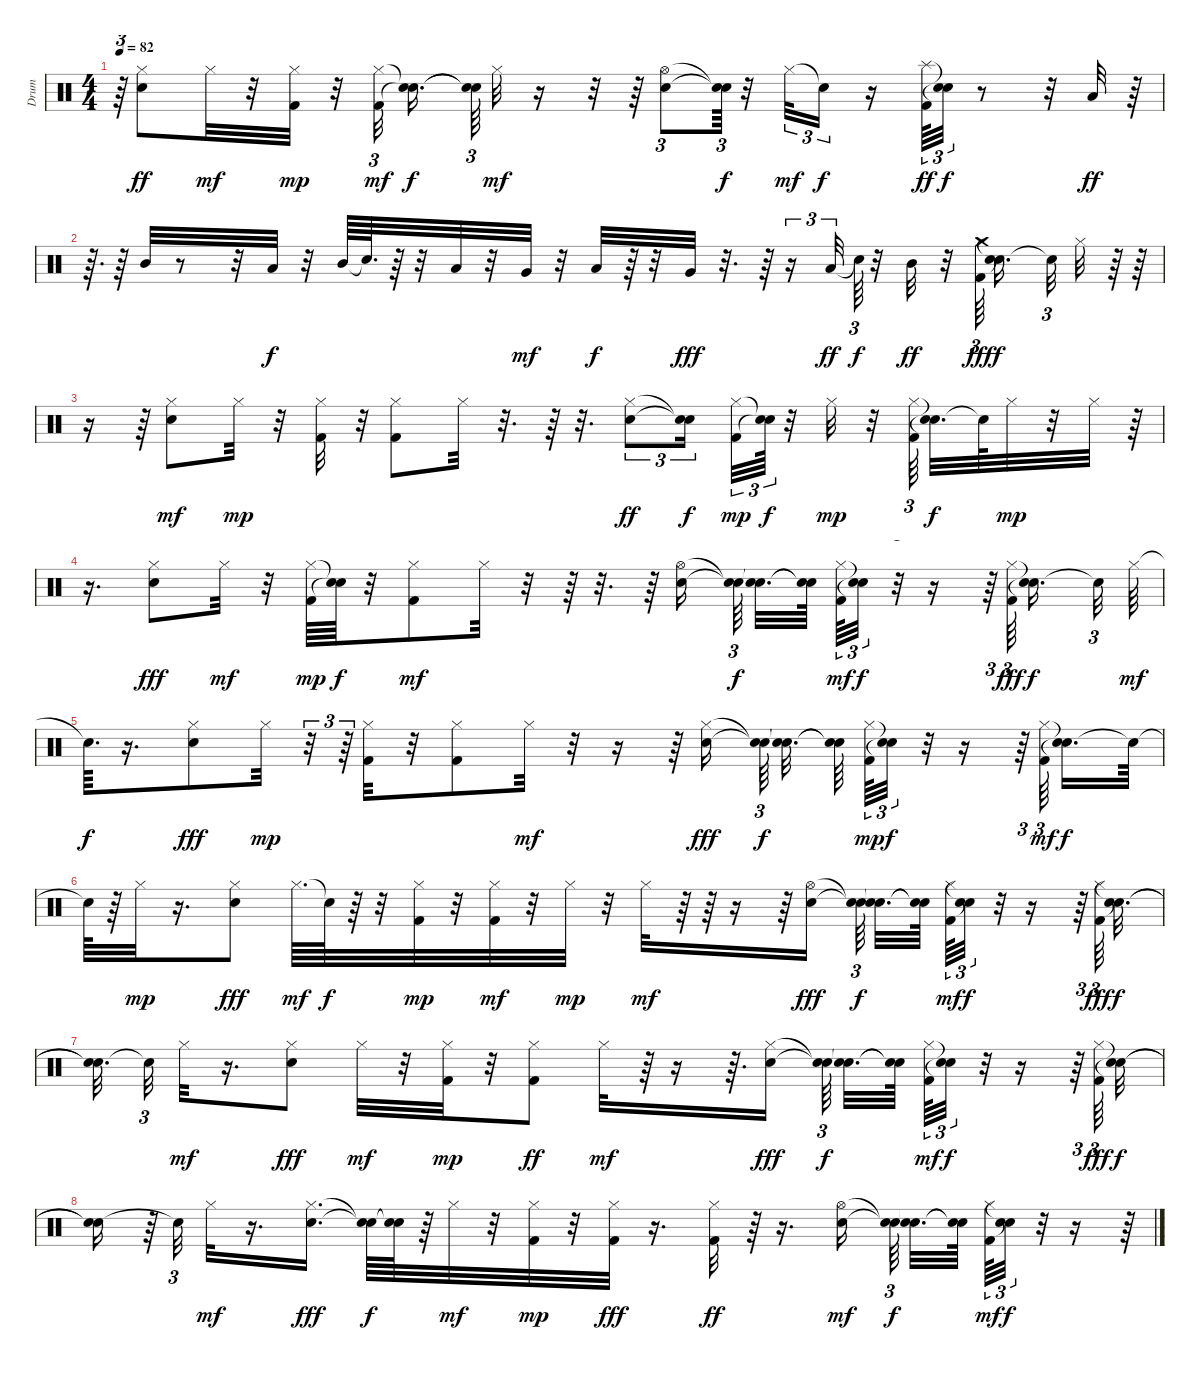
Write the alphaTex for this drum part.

\track ("Drum" "Drum") {instrument percussion}
\staff {score}
\articulation defaults
\ts (4 4)
\tempo 82
\clef neutral
\ks c
r.64{tu (3 2) dy mp} ("Electric Snare (hit)" "Hi-Hat (closed)").8{dy ff} "Hi-Hat (closed)".32{dy mf} r.32 ("Kick (hit) 2" "Hi-Hat (closed)").32{dy mp} r.32 ("Kick (hit) 2" "Hi-Hat (closed)").32{tu (3 2) dy mf beam splitsecondary} ("Snare (hit)"{t} "Snare (hit)"{t}).16{d dy f beam splitsecondary} ("Snare (hit)"{t} "Snare (hit)"{t}).64{tu (3 2)} "Hi-Hat (closed)".32{dy mf} r.16 r.32 r.64 ("Electric Snare (hit)" "Hi-Hat (open)").8{tu (3 2)} ("Snare (hit)"{t} "Snare (hit)"{t}).64{tu (3 2) dy f} r.32 "Hi-Hat (closed)".32{tu (3 2) dy mf} "Snare (hit)"{t}.16{tu (3 2) dy f} r.16 ("Kick (hit) 2" "Splash (hit)").64{tu (3 2) dy ff} ("Snare (hit)"{t} "Snare (hit)"{t}).32{tu (3 2) dy f} r.8 r.32 "Low Tom (hit)".32{dy ff} r.64 |
r.64{d} r.64 "Mid Tom (hit)".32 r.8 r.32 "Low Tom (hit)".32{dy f} r.32 "Mid Tom (hit)".64 "Snare (hit)"{t}.64{d} r.64 r.32 "Low Tom (hit)".32 r.32 "Very Low Tom (hit)".32{dy mf} r.32 "Low Floor Tom (hit)".32{dy f} r.64 r.32 "Very Low Tom (hit)".32{dy fff} r.32{d} r.64 r.16{tu (3 2)} "Low Tom (hit)".32{tu (3 2) dy ff} "Snare (hit)"{t}.64{tu (3 2) dy f} r.32 "Mid Tom (hit)".32{dy ff} r.32 ("Kick (hit) 2" "Crash medium (hit)").64{tu (3 2) dy fff beam splitsecondary} ("Snare (hit)"{t} "Snare (hit)"{t}).16{d dy f beam splitsecondary} "Snare (hit)"{t}.32{tu (3 2)} "Hi-Hat (closed)".32 r.64 r.64 |
r.16 r.64 ("Electric Snare (hit)" "Hi-Hat (closed)").8{dy mf} "Hi-Hat (closed)".32{dy mp} r.32 ("Kick (hit) 2" "Hi-Hat (closed)").32 r.32{tu (3 2)} ("Kick (hit) 2" "Hi-Hat (closed)").8 "Hi-Hat (closed)".32 r.32{d} r.64 r.32{d} ("Electric Snare (hit)" "Hi-Hat (closed)").8{tu (3 2) dy ff} ("Snare (hit)"{t} "Snare (hit)"{t}).16{tu (3 2) dy f beam splitsecondary} ("Kick (hit) 2" "Hi-Hat (closed)").32{tu (3 2) dy mp} ("Snare (hit)"{t} "Snare (hit)"{t}).64{tu (3 2) dy f} r.32 "Hi-Hat (closed)".32{dy mp} r.32 ("Kick (hit) 2" "Hi-Hat (closed)").64{tu (3 2) beam splitsecondary} ("Snare (hit)"{t} "Snare (hit)"{t}).32{d dy f} "Snare (hit)"{t}.64 "Hi-Hat (closed)".32{dy mp} r.32 "Hi-Hat (closed)".32 r.64 |
r.16{d} ("Electric Snare (hit)" "Hi-Hat (closed)").8{dy fff} "Hi-Hat (closed)".32{dy mf} r.32 ("Kick (hit) 2" "Hi-Hat (closed)").64{dy mp} ("Snare (hit)"{t} "Snare (hit)"{t}).64{dy f} r.32 ("Kick (hit) 2" "Hi-Hat (closed)").8{dy mf} "Hi-Hat (closed)".32 r.32 r.64 r.32{d} r.64 ("Electric Snare (hit)" "Hi-Hat (open)").16{beam splitsecondary} ("Snare (hit)"{t} "Snare (hit)"{t}).64{tu (3 2) dy f beam splitsecondary} ("Snare (hit)"{t} "Snare (hit)"{t}).32{d} ("Snare (hit)"{t} "Snare (hit)"{t}).64 ("Kick (hit) 2" "Hi-Hat (closed)").64{tu (3 2) dy mf} ("Snare (hit)"{t} "Snare (hit)"{t}).32{tu (3 2) dy f} r.32{tu (3 2)} r.16 r.64{tu (3 2)} ("Kick (hit) 2" "Hi-Hat (closed)").64{tu (3 2) dy fff beam splitsecondary} ("Snare (hit)"{t} "Snare (hit)"{t}).16{d dy f beam splitsecondary} "Snare (hit)"{t}.32{tu (3 2)} "Hi-Hat (closed)".64{dy mf} |
"Snare (hit)"{t}.64{d dy f} r.16{d} ("Electric Snare (hit)" "Hi-Hat (closed)").8{dy fff} "Hi-Hat (closed)".32{dy mp} r.32{tu (3 2)} r.64{tu (3 2)} ("Kick (hit) 2" "Hi-Hat (closed)").32 r.32 ("Kick (hit) 2" "Hi-Hat (closed)").8 "Hi-Hat (closed)".32{dy mf} r.32 r.16 r.64 ("Electric Snare (hit)" "Hi-Hat (closed)").16{dy fff beam splitsecondary} ("Snare (hit)"{t} "Snare (hit)"{t}).64{tu (3 2) dy f} ("Snare (hit)"{t} "Snare (hit)"{t}).32{d} ("Snare (hit)"{t} "Snare (hit)"{t}).64{beam splitsecondary} ("Kick (hit) 2" "Hi-Hat (closed)").64{tu (3 2) dy mp} ("Snare (hit)"{t} "Snare (hit)"{t}).32{tu (3 2) dy f} r.32{tu (3 2)} r.16 r.64{tu (3 2)} ("Kick (hit) 2" "Hi-Hat (closed)").64{tu (3 2) dy mf beam splitsecondary} ("Snare (hit)"{t} "Snare (hit)"{t}).16{d dy f} "Snare (hit)"{t}.64 |
"Snare (hit)"{t}.64 r.64 "Hi-Hat (closed)".32{dy mp} r.16{d} ("Electric Snare (hit)" "Hi-Hat (closed)").8{dy fff} "Hi-Hat (closed)".64{d dy mf} "Snare (hit)"{t}.64{dy f} r.64 r.32 ("Kick (hit) 2" "Hi-Hat (closed)").32{dy mp} r.32 ("Kick (hit) 2" "Hi-Hat (closed)").32{dy mf} r.32 "Hi-Hat (closed)".32{dy mp} r.32 "Hi-Hat (closed)".32{dy mf} r.64 r.64 r.16 r.64 ("Electric Snare (hit)" "Hi-Hat (open)").16{dy fff} ("Snare (hit)"{t} "Snare (hit)"{t}).64{tu (3 2) dy f beam splitsecondary} ("Snare (hit)"{t} "Snare (hit)"{t}).32{d} ("Snare (hit)"{t} "Snare (hit)"{t}).64{beam splitsecondary} ("Kick (hit) 2" "Hi-Hat (closed)").64{tu (3 2) dy mf} ("Snare (hit)"{t} "Snare (hit)"{t}).32{tu (3 2) dy f} r.32{tu (3 2)} r.16 r.64{tu (3 2)} ("Kick (hit) 2" "Hi-Hat (closed)").64{tu (3 2) dy fff} ("Snare (hit)"{t} "Snare (hit)"{t}).32{d dy f} |
("Snare (hit)"{t} "Snare (hit)"{t}).32{d beam splitsecondary} "Snare (hit)"{t}.32{tu (3 2)} "Hi-Hat (closed)".32{dy mf} r.16{d} ("Electric Snare (hit)" "Hi-Hat (closed)").8{dy fff} "Hi-Hat (closed)".32{dy mf} r.32 ("Kick (hit) 2" "Hi-Hat (closed)").32{dy mp} r.32 ("Kick (hit) 2" "Hi-Hat (closed)").8{dy ff} "Hi-Hat (closed)".32{dy mf} r.64 r.16 r.64{d} ("Electric Snare (hit)" "Hi-Hat (closed)").16{dy fff} ("Snare (hit)"{t} "Snare (hit)"{t}).64{tu (3 2) dy f beam splitsecondary} ("Snare (hit)"{t} "Snare (hit)"{t}).32{d} ("Snare (hit)"{t} "Snare (hit)"{t}).64{beam splitsecondary} ("Kick (hit) 2" "Hi-Hat (closed)").64{tu (3 2) dy mf} ("Snare (hit)"{t} "Snare (hit)"{t}).32{tu (3 2) dy f} r.32{tu (3 2)} r.16 r.64{tu (3 2)} ("Kick (hit) 2" "Hi-Hat (closed)").64{tu (3 2) dy fff} ("Snare (hit)"{t} "Snare (hit)"{t}).32{dy f} |
("Snare (hit)"{t} "Snare (hit)"{t}).16 r.64 "Snare (hit)"{t}.32{tu (3 2)} "Hi-Hat (closed)".32{dy mf} r.16{d} ("Electric Snare (hit)" "Hi-Hat (closed)").16{d dy fff} ("Snare (hit)"{t} "Snare (hit)"{t}).64{dy f} ("Snare (hit)"{t} "Snare (hit)"{t}).64 r.64 "Hi-Hat (closed)".32{dy mf} r.32 ("Kick (hit) 2" "Hi-Hat (closed)").32{dy mp} r.32 ("Kick (hit) 2" "Hi-Hat (closed)").32{dy fff} r.16{d} ("Kick (hit) 2" "Hi-Hat (closed)").32{dy ff} r.64 r.16{d} ("Electric Snare (hit)" "Hi-Hat (open)").16{dy mf beam splitsecondary} ("Snare (hit)"{t} "Snare (hit)"{t}).64{tu (3 2) dy f beam splitsecondary} ("Snare (hit)"{t} "Snare (hit)"{t}).32{d} ("Snare (hit)"{t} "Snare (hit)"{t}).64{beam splitsecondary} ("Kick (hit) 2" "Hi-Hat (closed)").64{tu (3 2) dy mf} ("Snare (hit)"{t} "Snare (hit)"{t}).32{tu (3 2) dy f} r.32{tu (3 2)} r.16 r.64
